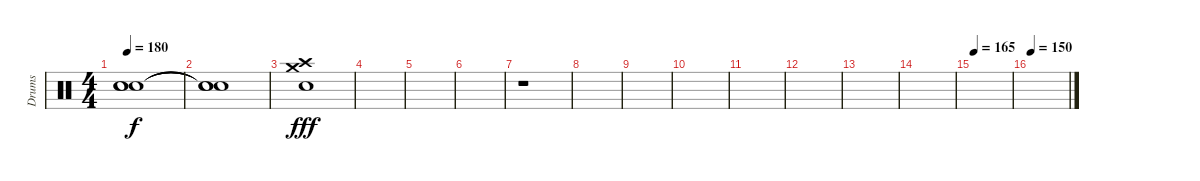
\track ("Drums" "Drums") {instrument percussion}
\staff {score}
\articulation defaults
\ts (4 4)
\tempo 180
\clef neutral
\ks c
("Snare (hit)"{t} "Snare (hit)"{t} "Snare (hit)"{t}).1{dy f} |
("Snare (hit)"{t} "Snare (hit)"{t} "Snare (hit)"{t}).1 |
("Crash high (hit)" "Crash medium (hit)" "Electric Snare (hit)").1{dy fff} |
|
|
|
r.1 |
|
|
|
|
|
|
|
\tempo 165
|
\tempo 150
